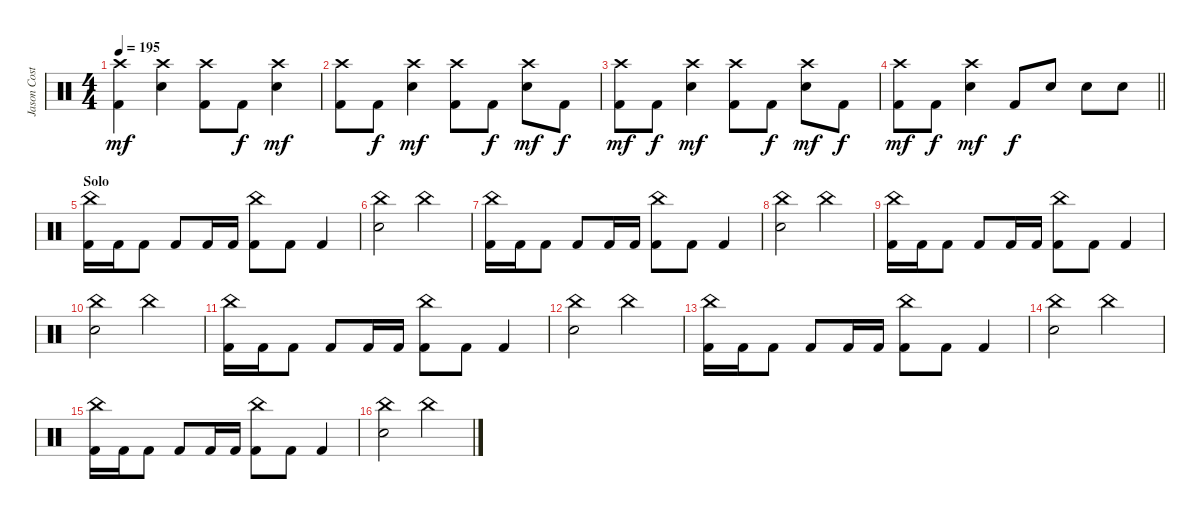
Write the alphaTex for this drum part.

\track ("Jason Costa" "Jason Cost") {instrument percussion}
\staff {score}
\articulation defaults
\ts (4 4)
\tempo 195
\clef neutral
\ks c
("Crash high (hit)" "Kick (hit) 2").4{dy mf} ("Crash high (hit)" "Electric Snare (hit)").4 ("Crash high (hit)" "Kick (hit) 2").8 "Kick (hit) 2".8{dy f} ("Crash high (hit)" "Electric Snare (hit)").4{dy mf} |
("Crash high (hit)" "Kick (hit) 2").8 "Kick (hit) 2".8{dy f} ("Crash high (hit)" "Electric Snare (hit)").4{dy mf} ("Crash high (hit)" "Kick (hit) 2").8 "Kick (hit) 2".8{dy f} ("Crash high (hit)" "Electric Snare (hit)").8{dy mf} "Kick (hit) 2".8{dy f} |
("Crash high (hit)" "Kick (hit) 2").8{dy mf} "Kick (hit) 2".8{dy f} ("Crash high (hit)" "Electric Snare (hit)").4{dy mf} ("Crash high (hit)" "Kick (hit) 2").8 "Kick (hit) 2".8{dy f} ("Crash high (hit)" "Electric Snare (hit)").8{dy mf} "Kick (hit) 2".8{dy f} |
\barLineRight lightlight
("Crash high (hit)" "Kick (hit) 2").8{dy mf} "Kick (hit) 2".8{dy f} ("Crash high (hit)" "Electric Snare (hit)").4{dy mf} "Kick (hit) 2".8{dy f} "Electric Snare (hit)".8 "Electric Snare (hit)".8 "Electric Snare (hit)".8 |
\section ("" "Solo")
("China (hit)" "Kick (hit) 2").16 "Kick (hit) 2".16 "Kick (hit) 2".8 "Kick (hit) 2".8 "Kick (hit) 2".16 "Kick (hit) 2".16 ("China (hit)" "Kick (hit) 2").8 "Kick (hit) 2".8 "Kick (hit) 2".4 |
("China (hit)" "Electric Snare (hit)").2 "China (hit)".2 |
("China (hit)" "Kick (hit) 2").16 "Kick (hit) 2".16 "Kick (hit) 2".8 "Kick (hit) 2".8 "Kick (hit) 2".16 "Kick (hit) 2".16 ("China (hit)" "Kick (hit) 2").8 "Kick (hit) 2".8 "Kick (hit) 2".4 |
("China (hit)" "Electric Snare (hit)").2 "China (hit)".2 |
("China (hit)" "Kick (hit) 2").16 "Kick (hit) 2".16 "Kick (hit) 2".8 "Kick (hit) 2".8 "Kick (hit) 2".16 "Kick (hit) 2".16 ("China (hit)" "Kick (hit) 2").8 "Kick (hit) 2".8 "Kick (hit) 2".4 |
("China (hit)" "Electric Snare (hit)").2 "China (hit)".2 |
("China (hit)" "Kick (hit) 2").16 "Kick (hit) 2".16 "Kick (hit) 2".8 "Kick (hit) 2".8 "Kick (hit) 2".16 "Kick (hit) 2".16 ("China (hit)" "Kick (hit) 2").8 "Kick (hit) 2".8 "Kick (hit) 2".4 |
("China (hit)" "Electric Snare (hit)").2 "China (hit)".2 |
("China (hit)" "Kick (hit) 2").16 "Kick (hit) 2".16 "Kick (hit) 2".8 "Kick (hit) 2".8 "Kick (hit) 2".16 "Kick (hit) 2".16 ("China (hit)" "Kick (hit) 2").8 "Kick (hit) 2".8 "Kick (hit) 2".4 |
("China (hit)" "Electric Snare (hit)").2 "China (hit)".2 |
("China (hit)" "Kick (hit) 2").16 "Kick (hit) 2".16 "Kick (hit) 2".8 "Kick (hit) 2".8 "Kick (hit) 2".16 "Kick (hit) 2".16 ("China (hit)" "Kick (hit) 2").8 "Kick (hit) 2".8 "Kick (hit) 2".4 |
("China (hit)" "Electric Snare (hit)").2 "China (hit)".2
